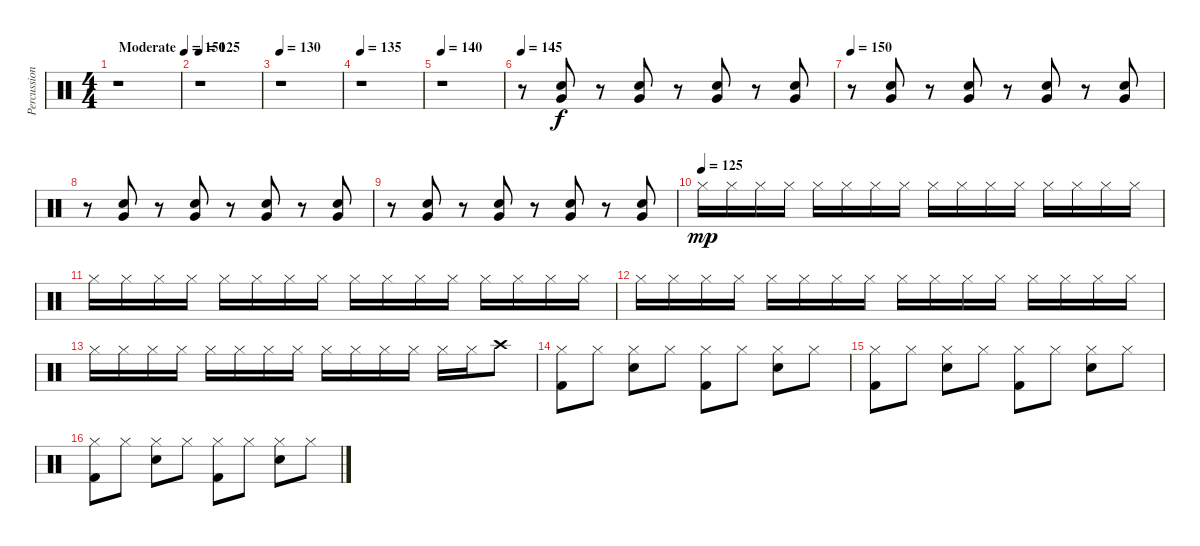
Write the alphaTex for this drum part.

\track ("Percussion" "Percussion") {instrument percussion}
\staff {score}
\articulation defaults
\ts (4 4)
\tempo (150 "Moderate")
\tempo 120
\tempo (150 "Moderate")
\clef neutral
\ks c
r.1{dy f} |
\tempo 125
r.1 |
\tempo 130
r.1 |
\tempo 135
r.1 |
\tempo 140
r.1 |
\tempo 145
r.8 ("Snare (hit) 2" "Very Low Tom (hit)").8 r.8 ("Snare (hit) 2" "Very Low Tom (hit)").8 r.8 ("Snare (hit) 2" "Very Low Tom (hit)").8 r.8 ("Snare (hit) 2" "Very Low Tom (hit)").8 |
\tempo 150
r.8 ("Snare (hit) 2" "Very Low Tom (hit)").8 r.8 ("Snare (hit) 2" "Very Low Tom (hit)").8 r.8 ("Snare (hit) 2" "Very Low Tom (hit)").8 r.8 ("Snare (hit) 2" "Very Low Tom (hit)").8 |
r.8 ("Snare (hit) 2" "Very Low Tom (hit)").8 r.8 ("Snare (hit) 2" "Very Low Tom (hit)").8 r.8 ("Snare (hit) 2" "Very Low Tom (hit)").8 r.8 ("Snare (hit) 2" "Very Low Tom (hit)").8 |
r.8 ("Snare (hit) 2" "Very Low Tom (hit)").8 r.8 ("Snare (hit) 2" "Very Low Tom (hit)").8 r.8 ("Snare (hit) 2" "Very Low Tom (hit)").8 r.8 ("Snare (hit) 2" "Very Low Tom (hit)").8 |
\tempo (125)
"Hi-Hat (closed)".16{dy mp} "Hi-Hat (closed)".16 "Hi-Hat (closed)".16 "Hi-Hat (closed)".16 "Hi-Hat (closed)".16 "Hi-Hat (closed)".16 "Hi-Hat (closed)".16 "Hi-Hat (closed)".16 "Hi-Hat (closed)".16 "Hi-Hat (closed)".16 "Hi-Hat (closed)".16 "Hi-Hat (closed)".16 "Hi-Hat (closed)".16 "Hi-Hat (closed)".16 "Hi-Hat (closed)".16 "Hi-Hat (closed)".16 |
"Hi-Hat (closed)".16 "Hi-Hat (closed)".16 "Hi-Hat (closed)".16 "Hi-Hat (closed)".16 "Hi-Hat (closed)".16 "Hi-Hat (closed)".16 "Hi-Hat (closed)".16 "Hi-Hat (closed)".16 "Hi-Hat (closed)".16 "Hi-Hat (closed)".16 "Hi-Hat (closed)".16 "Hi-Hat (closed)".16 "Hi-Hat (closed)".16 "Hi-Hat (closed)".16 "Hi-Hat (closed)".16 "Hi-Hat (closed)".16 |
"Hi-Hat (closed)".16 "Hi-Hat (closed)".16 "Hi-Hat (closed)".16 "Hi-Hat (closed)".16 "Hi-Hat (closed)".16 "Hi-Hat (closed)".16 "Hi-Hat (closed)".16 "Hi-Hat (closed)".16 "Hi-Hat (closed)".16 "Hi-Hat (closed)".16 "Hi-Hat (closed)".16 "Hi-Hat (closed)".16 "Hi-Hat (closed)".16 "Hi-Hat (closed)".16 "Hi-Hat (closed)".16 "Hi-Hat (closed)".16 |
"Hi-Hat (closed)".16 "Hi-Hat (closed)".16 "Hi-Hat (closed)".16 "Hi-Hat (closed)".16 "Hi-Hat (closed)".16 "Hi-Hat (closed)".16 "Hi-Hat (closed)".16 "Hi-Hat (closed)".16 "Hi-Hat (closed)".16 "Hi-Hat (closed)".16 "Hi-Hat (closed)".16 "Hi-Hat (closed)".16 "Hi-Hat (closed)".16 "Hi-Hat (closed)".16 "Crash high (hit)".8 |
("Hi-Hat (closed)" "Kick (hit) 2").8 "Hi-Hat (closed)".8 ("Hi-Hat (closed)" "Snare (hit) 2").8 "Hi-Hat (closed)".8 ("Hi-Hat (closed)" "Kick (hit) 2").8 "Hi-Hat (closed)".8 ("Hi-Hat (closed)" "Snare (hit) 2").8 "Hi-Hat (closed)".8 |
("Hi-Hat (closed)" "Kick (hit) 2").8 "Hi-Hat (closed)".8 ("Hi-Hat (closed)" "Snare (hit) 2").8 "Hi-Hat (closed)".8 ("Hi-Hat (closed)" "Kick (hit) 2").8 "Hi-Hat (closed)".8 ("Hi-Hat (closed)" "Snare (hit) 2").8 "Hi-Hat (closed)".8 |
("Hi-Hat (closed)" "Kick (hit) 2").8 "Hi-Hat (closed)".8 ("Hi-Hat (closed)" "Snare (hit) 2").8 "Hi-Hat (closed)".8 ("Hi-Hat (closed)" "Kick (hit) 2").8 "Hi-Hat (closed)".8 ("Hi-Hat (closed)" "Snare (hit) 2").8 "Hi-Hat (closed)".8
